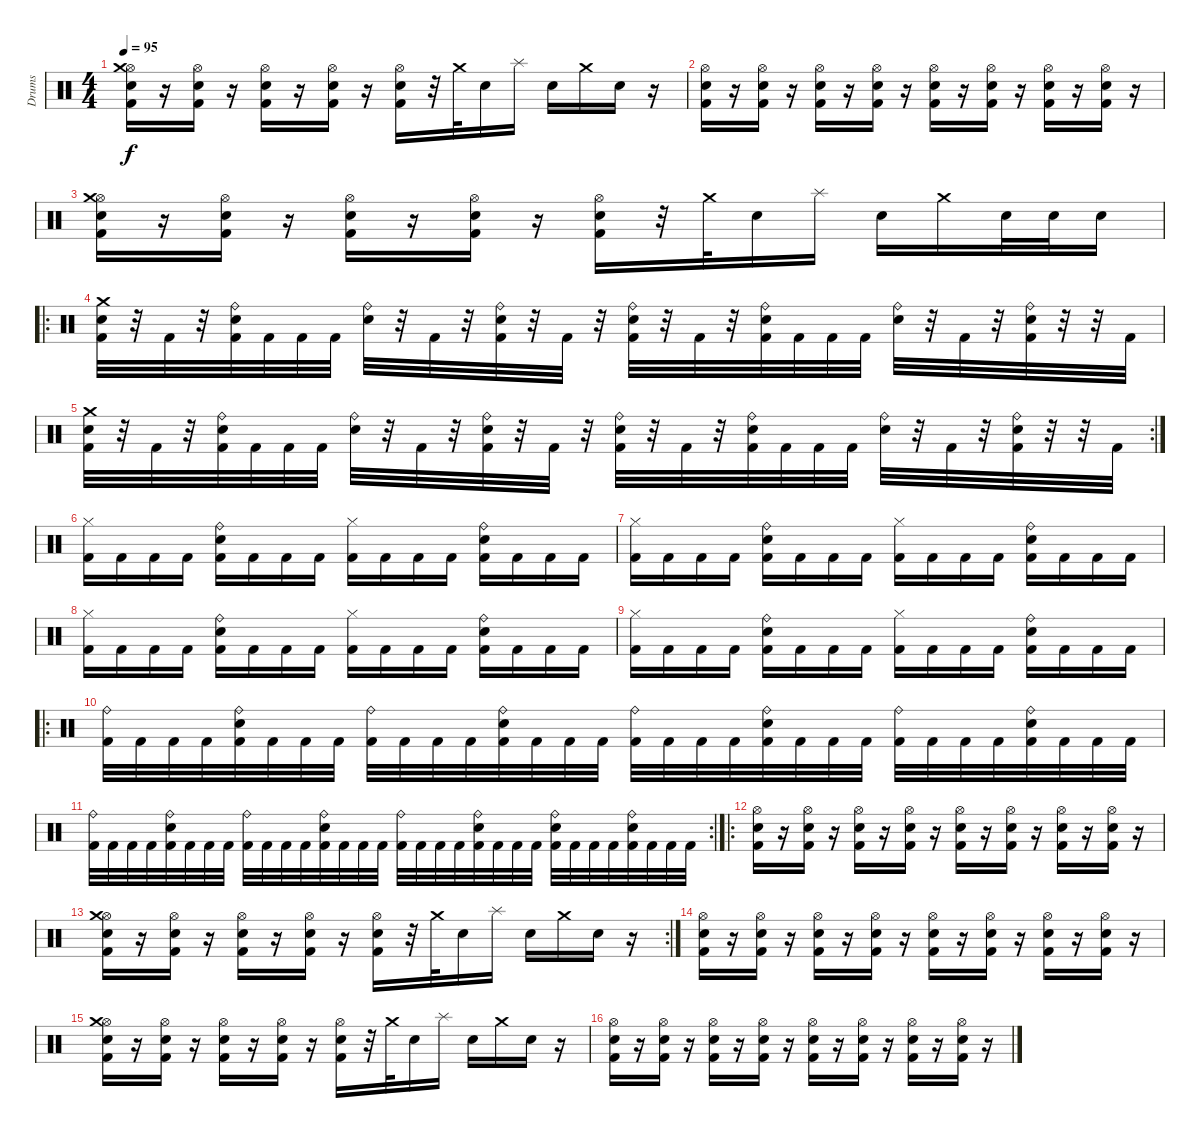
\track ("Drums" "Drums") {instrument percussion}
\staff {score}
\articulation defaults
\ts (4 4)
\tempo 95
\clef neutral
\ks c
("Hi-Hat (open)" "Snare (hit) 2" "Kick (hit) 2" "Crash medium (hit)").16{dy f} r.16 ("Hi-Hat (open)" "Snare (hit) 2" "Kick (hit) 2").16 r.16 ("Hi-Hat (open)" "Snare (hit) 2" "Kick (hit) 2").16 r.16 ("Hi-Hat (open)" "Snare (hit) 2" "Kick (hit) 2").16 r.16 ("Hi-Hat (open)" "Snare (hit) 2" "Kick (hit) 2").16 r.32 "Crash medium (hit)".32 "Snare (hit) 2".16 "Splash (hit)".16 "Snare (hit) 2".16 "Crash medium (hit)".16 "Snare (hit) 2".16 r.16 |
("Hi-Hat (open)" "Snare (hit) 2" "Kick (hit) 2").16 r.16 ("Hi-Hat (open)" "Snare (hit) 2" "Kick (hit) 2").16 r.16 ("Hi-Hat (open)" "Snare (hit) 2" "Kick (hit) 2").16 r.16 ("Hi-Hat (open)" "Snare (hit) 2" "Kick (hit) 2").16 r.16 ("Hi-Hat (open)" "Snare (hit) 2" "Kick (hit) 2").16 r.16 ("Hi-Hat (open)" "Snare (hit) 2" "Kick (hit) 2").16 r.16 ("Hi-Hat (open)" "Snare (hit) 2" "Kick (hit) 2").16 r.16 ("Hi-Hat (open)" "Snare (hit) 2" "Kick (hit) 2").16 r.16 |
("Hi-Hat (open)" "Snare (hit) 2" "Kick (hit) 2" "Crash medium (hit)").16 r.16 ("Hi-Hat (open)" "Snare (hit) 2" "Kick (hit) 2").16 r.16 ("Hi-Hat (open)" "Snare (hit) 2" "Kick (hit) 2").16 r.16 ("Hi-Hat (open)" "Snare (hit) 2" "Kick (hit) 2").16 r.16 ("Hi-Hat (open)" "Snare (hit) 2" "Kick (hit) 2").16 r.32 "Crash medium (hit)".32 "Snare (hit) 2".16 "Splash (hit)".16 "Snare (hit) 2".16 "Crash medium (hit)".16 "Snare (hit) 2".32 "Snare (hit) 2".32 "Snare (hit) 2".16 |
\ro
("Kick (hit) 2" "Snare (hit) 2" "Crash medium (hit)").32 r.32 "Kick (hit) 2".32 r.32 ("Kick (hit) 2" "Snare (hit) 2" "Ride (bell)").32 "Kick (hit) 2".32 "Kick (hit) 2".32 "Kick (hit) 2".32 ("Snare (hit) 2" "Ride (bell)").32 r.32 "Kick (hit) 2".32 r.32 ("Kick (hit) 2" "Snare (hit) 2" "Ride (bell)").32 r.32 "Kick (hit) 2".32 r.32 ("Kick (hit) 2" "Snare (hit) 2" "Ride (bell)").32 r.32 "Kick (hit) 2".32 r.32 ("Kick (hit) 2" "Snare (hit) 2" "Ride (bell)").32 "Kick (hit) 2".32 "Kick (hit) 2".32 "Kick (hit) 2".32 ("Snare (hit) 2" "Ride (bell)").32 r.32 "Kick (hit) 2".32 r.32 ("Kick (hit) 2" "Snare (hit) 2" "Ride (bell)").32 r.32 r.32 "Kick (hit) 2".32 |
\rc 2
("Kick (hit) 2" "Snare (hit) 2" "Crash medium (hit)").32 r.32 "Kick (hit) 2".32 r.32 ("Kick (hit) 2" "Snare (hit) 2" "Ride (bell)").32 "Kick (hit) 2".32 "Kick (hit) 2".32 "Kick (hit) 2".32 ("Snare (hit) 2" "Ride (bell)").32 r.32 "Kick (hit) 2".32 r.32 ("Kick (hit) 2" "Snare (hit) 2" "Ride (bell)").32 r.32 "Kick (hit) 2".32 r.32 ("Kick (hit) 2" "Snare (hit) 2" "Ride (bell)").32 r.32 "Kick (hit) 2".32 r.32 ("Kick (hit) 2" "Snare (hit) 2" "Ride (bell)").32 "Kick (hit) 2".32 "Kick (hit) 2".32 "Kick (hit) 2".32 ("Snare (hit) 2" "Ride (bell)").32 r.32 "Kick (hit) 2".32 r.32 ("Kick (hit) 2" "Snare (hit) 2" "Ride (bell)").32 r.32 r.32 "Kick (hit) 2".32 |
("Kick (hit) 2" "Hi-Hat (closed)").16 "Kick (hit) 2".16 "Kick (hit) 2".16 "Kick (hit) 2".16 ("Kick (hit) 2" "Snare (hit) 2" "Ride (bell)").16 "Kick (hit) 2".16 "Kick (hit) 2".16 "Kick (hit) 2".16 ("Kick (hit) 2" "Hi-Hat (closed)").16 "Kick (hit) 2".16 "Kick (hit) 2".16 "Kick (hit) 2".16 ("Kick (hit) 2" "Snare (hit) 2" "Ride (bell)").16 "Kick (hit) 2".16 "Kick (hit) 2".16 "Kick (hit) 2".16 |
("Kick (hit) 2" "Hi-Hat (closed)").16 "Kick (hit) 2".16 "Kick (hit) 2".16 "Kick (hit) 2".16 ("Kick (hit) 2" "Snare (hit) 2" "Ride (bell)").16 "Kick (hit) 2".16 "Kick (hit) 2".16 "Kick (hit) 2".16 ("Kick (hit) 2" "Hi-Hat (closed)").16 "Kick (hit) 2".16 "Kick (hit) 2".16 "Kick (hit) 2".16 ("Kick (hit) 2" "Snare (hit) 2" "Ride (bell)").16 "Kick (hit) 2".16 "Kick (hit) 2".16 "Kick (hit) 2".16 |
("Kick (hit) 2" "Hi-Hat (closed)").16 "Kick (hit) 2".16 "Kick (hit) 2".16 "Kick (hit) 2".16 ("Kick (hit) 2" "Snare (hit) 2" "Ride (bell)").16 "Kick (hit) 2".16 "Kick (hit) 2".16 "Kick (hit) 2".16 ("Kick (hit) 2" "Hi-Hat (closed)").16 "Kick (hit) 2".16 "Kick (hit) 2".16 "Kick (hit) 2".16 ("Kick (hit) 2" "Snare (hit) 2" "Ride (bell)").16 "Kick (hit) 2".16 "Kick (hit) 2".16 "Kick (hit) 2".16 |
("Kick (hit) 2" "Hi-Hat (closed)").16 "Kick (hit) 2".16 "Kick (hit) 2".16 "Kick (hit) 2".16 ("Kick (hit) 2" "Snare (hit) 2" "Ride (bell)").16 "Kick (hit) 2".16 "Kick (hit) 2".16 "Kick (hit) 2".16 ("Kick (hit) 2" "Hi-Hat (closed)").16 "Kick (hit) 2".16 "Kick (hit) 2".16 "Kick (hit) 2".16 ("Kick (hit) 2" "Snare (hit) 2" "Ride (bell)").16 "Kick (hit) 2".16 "Kick (hit) 2".16 "Kick (hit) 2".16 |
\ro
("Kick (hit) 2" "Ride (bell)").32 "Kick (hit) 2".32 "Kick (hit) 2".32 "Kick (hit) 2".32 ("Kick (hit) 2" "Snare (hit) 2" "Ride (bell)").32 "Kick (hit) 2".32 "Kick (hit) 2".32 "Kick (hit) 2".32 ("Kick (hit) 2" "Ride (bell)").32 "Kick (hit) 2".32 "Kick (hit) 2".32 "Kick (hit) 2".32 ("Kick (hit) 2" "Snare (hit) 2" "Ride (bell)").32 "Kick (hit) 2".32 "Kick (hit) 2".32 "Kick (hit) 2".32 ("Kick (hit) 2" "Ride (bell)").32 "Kick (hit) 2".32 "Kick (hit) 2".32 "Kick (hit) 2".32 ("Kick (hit) 2" "Snare (hit) 2" "Ride (bell)").32 "Kick (hit) 2".32 "Kick (hit) 2".32 "Kick (hit) 2".32 ("Kick (hit) 2" "Ride (bell)").32 "Kick (hit) 2".32 "Kick (hit) 2".32 "Kick (hit) 2".32 ("Kick (hit) 2" "Snare (hit) 2" "Ride (bell)").32 "Kick (hit) 2".32 "Kick (hit) 2".32 "Kick (hit) 2".32 |
\rc 2
("Kick (hit) 2" "Ride (bell)").32 "Kick (hit) 2".32 "Kick (hit) 2".32 "Kick (hit) 2".32 ("Kick (hit) 2" "Snare (hit) 2" "Ride (bell)").32 "Kick (hit) 2".32 "Kick (hit) 2".32 "Kick (hit) 2".32 ("Kick (hit) 2" "Ride (bell)").32 "Kick (hit) 2".32 "Kick (hit) 2".32 "Kick (hit) 2".32 ("Kick (hit) 2" "Snare (hit) 2" "Ride (bell)").32 "Kick (hit) 2".32 "Kick (hit) 2".32 "Kick (hit) 2".32 ("Kick (hit) 2" "Ride (bell)").32 "Kick (hit) 2".32 "Kick (hit) 2".32 "Kick (hit) 2".32 ("Kick (hit) 2" "Snare (hit) 2" "Ride (bell)").32 "Kick (hit) 2".32 "Kick (hit) 2".32 "Kick (hit) 2".32 ("Kick (hit) 2" "Snare (hit) 2" "Ride (bell)").32 "Kick (hit) 2".32 "Kick (hit) 2".32 "Kick (hit) 2".32 ("Kick (hit) 2" "Snare (hit) 2" "Ride (bell)").32 "Kick (hit) 2".32 "Kick (hit) 2".32 "Kick (hit) 2".32 |
\ro
("Hi-Hat (open)" "Snare (hit) 2" "Kick (hit) 2").16 r.16 ("Hi-Hat (open)" "Snare (hit) 2" "Kick (hit) 2").16 r.16 ("Hi-Hat (open)" "Snare (hit) 2" "Kick (hit) 2").16 r.16 ("Hi-Hat (open)" "Snare (hit) 2" "Kick (hit) 2").16 r.16 ("Hi-Hat (open)" "Snare (hit) 2" "Kick (hit) 2").16 r.16 ("Hi-Hat (open)" "Snare (hit) 2" "Kick (hit) 2").16 r.16 ("Hi-Hat (open)" "Snare (hit) 2" "Kick (hit) 2").16 r.16 ("Hi-Hat (open)" "Snare (hit) 2" "Kick (hit) 2").16 r.16 |
\rc 2
("Hi-Hat (open)" "Snare (hit) 2" "Kick (hit) 2" "Crash medium (hit)").16 r.16 ("Hi-Hat (open)" "Snare (hit) 2" "Kick (hit) 2").16 r.16 ("Hi-Hat (open)" "Snare (hit) 2" "Kick (hit) 2").16 r.16 ("Hi-Hat (open)" "Snare (hit) 2" "Kick (hit) 2").16 r.16 ("Hi-Hat (open)" "Snare (hit) 2" "Kick (hit) 2").16 r.32 "Crash medium (hit)".32 "Snare (hit) 2".16 "Splash (hit)".16 "Snare (hit) 2".16 "Crash medium (hit)".16 "Snare (hit) 2".16 r.16 |
("Hi-Hat (open)" "Snare (hit) 2" "Kick (hit) 2").16 r.16 ("Hi-Hat (open)" "Snare (hit) 2" "Kick (hit) 2").16 r.16 ("Hi-Hat (open)" "Snare (hit) 2" "Kick (hit) 2").16 r.16 ("Hi-Hat (open)" "Snare (hit) 2" "Kick (hit) 2").16 r.16 ("Hi-Hat (open)" "Snare (hit) 2" "Kick (hit) 2").16 r.16 ("Hi-Hat (open)" "Snare (hit) 2" "Kick (hit) 2").16 r.16 ("Hi-Hat (open)" "Snare (hit) 2" "Kick (hit) 2").16 r.16 ("Hi-Hat (open)" "Snare (hit) 2" "Kick (hit) 2").16 r.16 |
("Hi-Hat (open)" "Snare (hit) 2" "Kick (hit) 2" "Crash medium (hit)").16 r.16 ("Hi-Hat (open)" "Snare (hit) 2" "Kick (hit) 2").16 r.16 ("Hi-Hat (open)" "Snare (hit) 2" "Kick (hit) 2").16 r.16 ("Hi-Hat (open)" "Snare (hit) 2" "Kick (hit) 2").16 r.16 ("Hi-Hat (open)" "Snare (hit) 2" "Kick (hit) 2").16 r.32 "Crash medium (hit)".32 "Snare (hit) 2".16 "Splash (hit)".16 "Snare (hit) 2".16 "Crash medium (hit)".16 "Snare (hit) 2".16 r.16 |
("Hi-Hat (open)" "Snare (hit) 2" "Kick (hit) 2").16 r.16 ("Hi-Hat (open)" "Snare (hit) 2" "Kick (hit) 2").16 r.16 ("Hi-Hat (open)" "Snare (hit) 2" "Kick (hit) 2").16 r.16 ("Hi-Hat (open)" "Snare (hit) 2" "Kick (hit) 2").16 r.16 ("Hi-Hat (open)" "Snare (hit) 2" "Kick (hit) 2").16 r.16 ("Hi-Hat (open)" "Snare (hit) 2" "Kick (hit) 2").16 r.16 ("Hi-Hat (open)" "Snare (hit) 2" "Kick (hit) 2").16 r.16 ("Hi-Hat (open)" "Snare (hit) 2" "Kick (hit) 2").16 r.16
